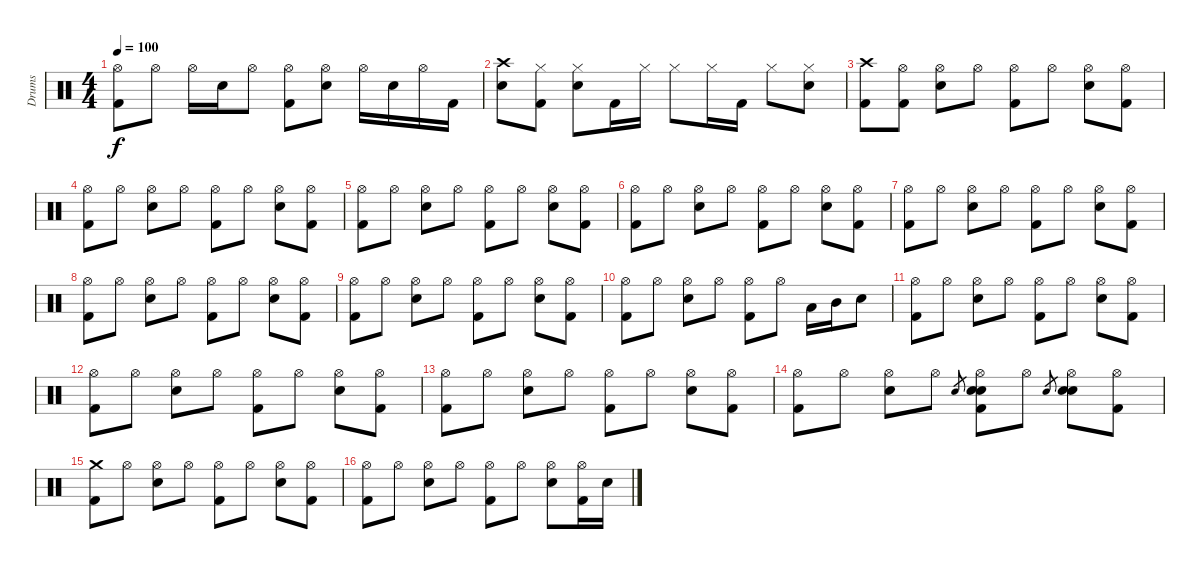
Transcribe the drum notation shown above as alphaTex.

\track ("Drums" "Drums") {instrument percussion}
\staff {score}
\articulation defaults
\ts (4 4)
\tempo 100
\clef neutral
\ks c
("Hi-Hat (open)" "Kick (hit) 2").8{dy f} "Hi-Hat (open)".8 "Hi-Hat (open)".16 "Snare (hit) 2".16 "Hi-Hat (open)".8 ("Hi-Hat (open)" "Kick (hit) 2").8 ("Hi-Hat (open)" "Snare (hit) 2").8 "Hi-Hat (open)".16 "Snare (hit) 2".16 "Hi-Hat (open)".16 "Kick (hit) 2".16 |
("Crash high (hit)" "Snare (hit) 2").8 ("Hi-Hat (closed)" "Kick (hit) 2").8 ("Hi-Hat (closed)" "Snare (hit) 2").8 "Kick (hit) 2".16 "Hi-Hat (closed)".16 "Hi-Hat (closed)".8 "Hi-Hat (closed)".16 "Kick (hit) 2".16 "Hi-Hat (closed)".8 ("Hi-Hat (closed)" "Snare (hit) 2").8 |
("Crash high (hit)" "Kick (hit) 2").8 ("Hi-Hat (open)" "Kick (hit) 2").8 ("Hi-Hat (open)" "Snare (hit) 2").8 "Hi-Hat (open)".8 ("Hi-Hat (open)" "Kick (hit) 2").8 "Hi-Hat (open)".8 ("Hi-Hat (open)" "Snare (hit) 2").8 ("Hi-Hat (open)" "Kick (hit) 2").8 |
("Hi-Hat (open)" "Kick (hit) 2").8 "Hi-Hat (open)".8 ("Hi-Hat (open)" "Snare (hit) 2").8 "Hi-Hat (open)".8 ("Hi-Hat (open)" "Kick (hit) 2").8 "Hi-Hat (open)".8 ("Hi-Hat (open)" "Snare (hit) 2").8 ("Hi-Hat (open)" "Kick (hit) 2").8 |
("Hi-Hat (open)" "Kick (hit) 2").8 "Hi-Hat (open)".8 ("Hi-Hat (open)" "Snare (hit) 2").8 "Hi-Hat (open)".8 ("Hi-Hat (open)" "Kick (hit) 2").8 "Hi-Hat (open)".8 ("Hi-Hat (open)" "Snare (hit) 2").8 ("Hi-Hat (open)" "Kick (hit) 2").8 |
("Hi-Hat (open)" "Kick (hit) 2").8 "Hi-Hat (open)".8 ("Hi-Hat (open)" "Snare (hit) 2").8 "Hi-Hat (open)".8 ("Hi-Hat (open)" "Kick (hit) 2").8 "Hi-Hat (open)".8 ("Hi-Hat (open)" "Snare (hit) 2").8 ("Hi-Hat (open)" "Kick (hit) 2").8 |
("Hi-Hat (open)" "Kick (hit) 2").8 "Hi-Hat (open)".8 ("Hi-Hat (open)" "Snare (hit) 2").8 "Hi-Hat (open)".8 ("Hi-Hat (open)" "Kick (hit) 2").8 "Hi-Hat (open)".8 ("Hi-Hat (open)" "Snare (hit) 2").8 ("Hi-Hat (open)" "Kick (hit) 2").8 |
("Hi-Hat (open)" "Kick (hit) 2").8 "Hi-Hat (open)".8 ("Hi-Hat (open)" "Snare (hit) 2").8 "Hi-Hat (open)".8 ("Hi-Hat (open)" "Kick (hit) 2").8 "Hi-Hat (open)".8 ("Hi-Hat (open)" "Snare (hit) 2").8 ("Hi-Hat (open)" "Kick (hit) 2").8 |
("Hi-Hat (open)" "Kick (hit) 2").8 "Hi-Hat (open)".8 ("Hi-Hat (open)" "Snare (hit) 2").8 "Hi-Hat (open)".8 ("Hi-Hat (open)" "Kick (hit) 2").8 "Hi-Hat (open)".8 ("Hi-Hat (open)" "Snare (hit) 2").8 ("Hi-Hat (open)" "Kick (hit) 2").8 |
("Hi-Hat (open)" "Kick (hit) 2").8 "Hi-Hat (open)".8 ("Hi-Hat (open)" "Snare (hit) 2").8 "Hi-Hat (open)".8 ("Hi-Hat (open)" "Kick (hit) 2").8 "Hi-Hat (open)".8 "Low Tom (hit)".16 "Mid Tom (hit)".16 "Snare (hit) 2".8 |
("Hi-Hat (open)" "Kick (hit) 2").8 "Hi-Hat (open)".8 ("Hi-Hat (open)" "Snare (hit) 2").8 "Hi-Hat (open)".8 ("Hi-Hat (open)" "Kick (hit) 2").8 "Hi-Hat (open)".8 ("Hi-Hat (open)" "Snare (hit) 2").8 ("Hi-Hat (open)" "Kick (hit) 2").8 |
("Hi-Hat (open)" "Kick (hit) 2").8 "Hi-Hat (open)".8 ("Hi-Hat (open)" "Snare (hit) 2").8 "Hi-Hat (open)".8 ("Hi-Hat (open)" "Kick (hit) 2").8 "Hi-Hat (open)".8 ("Hi-Hat (open)" "Snare (hit) 2").8 ("Hi-Hat (open)" "Kick (hit) 2").8 |
("Hi-Hat (open)" "Kick (hit) 2").8 "Hi-Hat (open)".8 ("Hi-Hat (open)" "Snare (hit) 2").8 "Hi-Hat (open)".8 ("Hi-Hat (open)" "Kick (hit) 2").8 "Hi-Hat (open)".8 ("Hi-Hat (open)" "Snare (hit) 2").8 ("Hi-Hat (open)" "Kick (hit) 2").8 |
("Hi-Hat (open)" "Kick (hit) 2").8 "Hi-Hat (open)".8 ("Hi-Hat (open)" "Snare (hit) 2").8 "Hi-Hat (open)".8 "Electric Snare (hit)".8{gr} ("Electric Snare (hit)" "Hi-Hat (open)" "Electric Snare (hit)" "Kick (hit) 2").8 "Hi-Hat (open)".8 "Electric Snare (hit)".8{gr} ("Electric Snare (hit)" "Hi-Hat (open)" "Snare (hit) 2").8 ("Hi-Hat (open)" "Kick (hit) 2").8 |
("Crash medium (hit)" "Kick (hit) 2").8 "Hi-Hat (open)".8 ("Hi-Hat (open)" "Snare (hit) 2").8 "Hi-Hat (open)".8 ("Hi-Hat (open)" "Kick (hit) 2").8 "Hi-Hat (open)".8 ("Hi-Hat (open)" "Snare (hit) 2").8 ("Hi-Hat (open)" "Kick (hit) 2").8 |
("Hi-Hat (open)" "Kick (hit) 2").8 "Hi-Hat (open)".8 ("Hi-Hat (open)" "Snare (hit) 2").8 "Hi-Hat (open)".8 ("Hi-Hat (open)" "Kick (hit) 2").8 "Hi-Hat (open)".8 ("Hi-Hat (open)" "Snare (hit) 2").8 ("Hi-Hat (open)" "Kick (hit) 2").16 "Snare (hit) 2".16
